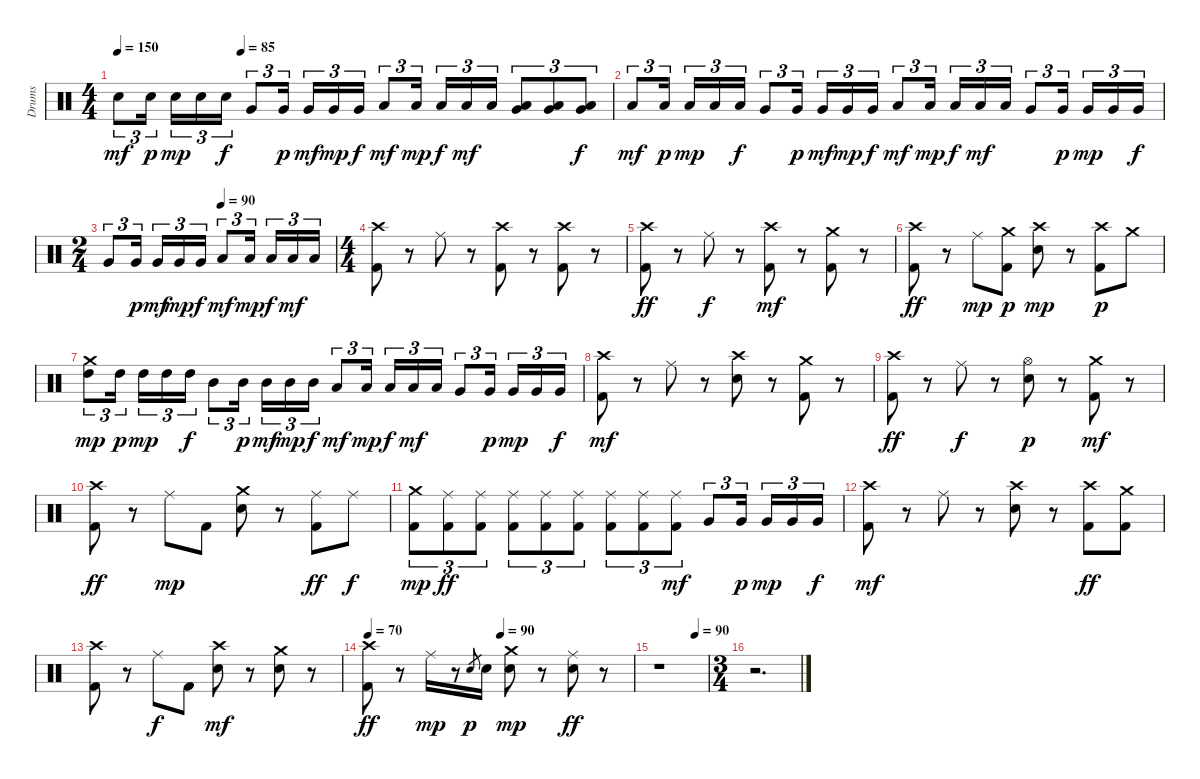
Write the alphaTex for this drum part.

\track ("Drums" "Drums") {instrument percussion}
\staff {score}
\articulation defaults
\ts (4 4)
\tempo 150
\tempo (85 0.25)
\clef neutral
\ks c "Snare (hit) 2".8{tu (3 2) dy mf} "Snare (hit) 2".16{tu (3 2) dy p} "Snare (hit) 2".16{tu (3 2) dy mp} "Snare (hit) 2".16{tu (3 2)} "Snare (hit) 2".16{tu (3 2) dy f} "Very Low Tom (hit)".8{tu (3 2)} "Very Low Tom (hit)".16{tu (3 2) dy p} "Very Low Tom (hit)".16{tu (3 2) dy mf} "Very Low Tom (hit)".16{tu (3 2) dy mp} "Very Low Tom (hit)".16{tu (3 2) dy f} "Low Floor Tom (hit)".8{tu (3 2) dy mf} "Low Floor Tom (hit)".16{tu (3 2) dy mp} "Low Floor Tom (hit)".16{tu (3 2) dy f} "Low Floor Tom (hit)".16{tu (3 2) dy mf} "Low Floor Tom (hit)".16{tu (3 2)}
("Low Floor Tom (hit)" "Very Low Tom (hit)").8{tu (3 2)} ("Low Floor Tom (hit)" "Very Low Tom (hit)").8{tu (3 2)} ("Low Floor Tom (hit)" "Very Low Tom (hit)").8{tu (3 2) dy f} |
"Low Floor Tom (hit)".8{tu (3 2) dy mf} "Low Floor Tom (hit)".16{tu (3 2) dy p} "Low Floor Tom (hit)".16{tu (3 2) dy mp} "Low Floor Tom (hit)".16{tu (3 2)} "Low Floor Tom (hit)".16{tu (3 2) dy f} "Very Low Tom (hit)".8{tu (3 2)} "Very Low Tom (hit)".16{tu (3 2) dy p} "Very Low Tom (hit)".16{tu (3 2) dy mf} "Very Low Tom (hit)".16{tu (3 2) dy mp} "Very Low Tom (hit)".16{tu (3 2) dy f} "Low Tom (hit)".8{tu (3 2) dy mf} "Low Tom (hit)".16{tu (3 2) dy mp} "Low Tom (hit)".16{tu (3 2) dy f} "Low Tom (hit)".16{tu (3 2) dy mf} "Low Tom (hit)".16{tu (3 2)} "Very Low Tom (hit)".8{tu (3 2)} "Very Low Tom (hit)".16{tu (3 2) dy p} "Very Low Tom (hit)".16{tu (3 2) dy mp} "Very Low Tom (hit)".16{tu (3 2)} "Very Low Tom (hit)".16{tu (3 2) dy f} |
\ts (2 4)
\tempo (90 0.5)
"Very Low Tom (hit)".8{tu (3 2)} "Very Low Tom (hit)".16{tu (3 2) dy p} "Very Low Tom (hit)".16{tu (3 2) dy mf} "Very Low Tom (hit)".16{tu (3 2) dy mp} "Very Low Tom (hit)".16{tu (3 2) dy f} "Low Floor Tom (hit)".8{tu (3 2) dy mf} "Low Floor Tom (hit)".16{tu (3 2) dy mp} "Low Floor Tom (hit)".16{tu (3 2) dy f} "Low Floor Tom (hit)".16{tu (3 2) dy mf} "Low Floor Tom (hit)".16{tu (3 2)} |
\ts (4 4)
("Kick (hit) 2" "Crash high (hit)").8 r.8 "Ride (middle)".8 r.8 ("Kick (hit) 2" "Crash high (hit)").8 r.8 ("Kick (hit) 2" "Crash high (hit)").8 r.8 |
("Kick (hit) 2" "Crash high (hit)").8{dy ff} r.8 "Ride (middle)".8{dy f} r.8 ("Kick (hit) 2" "Crash high (hit)").8{dy mf} r.8 ("Kick (hit) 2" "Crash medium (hit)").8 r.8 |
("Kick (hit) 2" "Crash high (hit)").8{dy ff} r.8 "Ride (middle)".8{dy mp} ("Kick (hit) 2" "Crash medium (hit)").8{dy p} ("Snare (hit) 2" "Crash high (hit)").8{dy mp} r.8 ("Kick (hit) 2" "Crash high (hit)").8{dy p} "Crash medium (hit)".8 |
("High Tom (hit)" "Crash medium (hit)").8{tu (3 2) dy mp} "High Tom (hit)".16{tu (3 2) dy p} "High Tom (hit)".16{tu (3 2) dy mp} "High Tom (hit)".16{tu (3 2)} "High Tom (hit)".16{tu (3 2) dy f} "Mid Tom (hit)".8{tu (3 2)} "Mid Tom (hit)".16{tu (3 2) dy p} "Mid Tom (hit)".16{tu (3 2) dy mf} "Mid Tom (hit)".16{tu (3 2) dy mp} "Mid Tom (hit)".16{tu (3 2) dy f} "Low Tom (hit)".8{tu (3 2) dy mf} "Low Tom (hit)".16{tu (3 2) dy mp} "Low Tom (hit)".16{tu (3 2) dy f} "Low Tom (hit)".16{tu (3 2) dy mf} "Low Tom (hit)".16{tu (3 2)} "Very Low Tom (hit)".8{tu (3 2)} "Very Low Tom (hit)".16{tu (3 2) dy p} "Very Low Tom (hit)".16{tu (3 2) dy mp} "Very Low Tom (hit)".16{tu (3 2)} "Very Low Tom (hit)".16{tu (3 2) dy f} |
("Kick (hit) 2" "Crash high (hit)").8{dy mf} r.8 "Ride (middle)".8 r.8 ("Snare (hit) 2" "Crash high (hit)").8 r.8 ("Kick (hit) 2" "Crash medium (hit)").8 r.8 |
("Kick (hit) 2" "Crash high (hit)").8{dy ff} r.8 "Ride (middle)".8{dy f} r.8 ("Snare (hit) 2" "Hi-Hat (open)").8{dy p} r.8 ("Kick (hit) 2" "Crash medium (hit)").8{dy mf} r.8 |
("Kick (hit) 2" "Crash high (hit)").8{dy ff} r.8 "Ride (middle)".8{dy mp} "Kick (hit) 2".8 ("Snare (hit) 2" "Crash medium (hit)").8 r.8 ("Kick (hit) 2" "Ride (middle)").8{dy ff} "Ride (middle)".8{dy f} |
("Kick (hit) 2" "Crash medium (hit)").8{tu (3 2) dy mp} ("Kick (hit) 2" "Ride (middle)").8{tu (3 2) dy ff} ("Kick (hit) 2" "Ride (middle)").8{tu (3 2)} ("Kick (hit) 2" "Ride (middle)").8{tu (3 2)} ("Kick (hit) 2" "Ride (middle)").8{tu (3 2)} ("Kick (hit) 2" "Ride (middle)").8{tu (3 2)} ("Kick (hit) 2" "Ride (middle)").8{tu (3 2)} ("Kick (hit) 2" "Ride (middle)").8{tu (3 2)} ("Kick (hit) 2" "Ride (middle)").8{tu (3 2) dy mf} "Very Low Tom (hit)".8{tu (3 2)} "Very Low Tom (hit)".16{tu (3 2) dy p} "Very Low Tom (hit)".16{tu (3 2) dy mp} "Very Low Tom (hit)".16{tu (3 2)} "Very Low Tom (hit)".16{tu (3 2) dy f} |
("Kick (hit) 2" "Crash high (hit)").8{dy mf} r.8 "Ride (middle)".8 r.8 ("Snare (hit) 2" "Crash high (hit)").8 r.8 ("Kick (hit) 2" "Crash high (hit)").8{dy ff} ("Kick (hit) 2" "Crash medium (hit)").8 |
("Kick (hit) 2" "Crash high (hit)").8 r.8 "Ride (middle)".8{dy f} "Kick (hit) 2".8 ("Snare (hit) 2" "Crash high (hit)").8{dy mf} r.8 ("Snare (hit) 2" "Crash medium (hit)").8 r.8 |
\tempo 70
\tempo (90 0.5)
("Kick (hit) 2" "Crash high (hit)").8{dy ff} r.8 "Ride (middle)".16{dy mp} r.8 "Snare (hit) 2".8{gr dy p} "Snare (hit) 2".16 ("Snare (hit) 2" "Crash medium (hit)").8{dy mp} r.8 ("Snare (hit) 2" "Ride (middle)").8{dy ff} r.8 |
\tempo (90 0.75)
r.1 |
\ts (3 4)
r.2{d}
